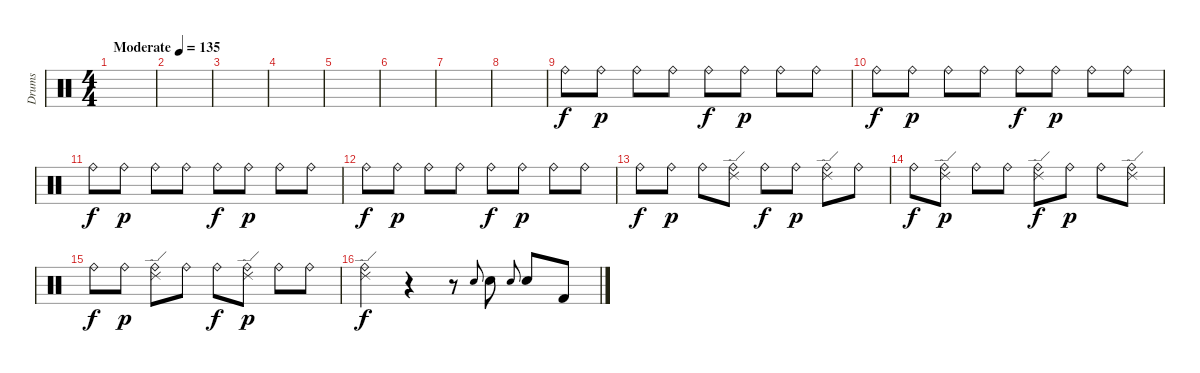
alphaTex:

\track ("Drums" "Drums") {instrument percussion}
\staff {score}
\articulation defaults
\ts (4 4)
\tempo (135 "Moderate")
\clef neutral
\ks c
|
|
|
|
|
|
|
|
"Ride (bell)".8 "Ride (bell)".8{dy p} "Ride (bell)".8 "Ride (bell)".8 "Ride (bell)".8{dy f} "Ride (bell)".8{dy p} "Ride (bell)".8 "Ride (bell)".8 |
"Ride (bell)".8{dy f} "Ride (bell)".8{dy p} "Ride (bell)".8 "Ride (bell)".8 "Ride (bell)".8{dy f} "Ride (bell)".8{dy p} "Ride (bell)".8 "Ride (bell)".8 |
"Ride (bell)".8{dy f} "Ride (bell)".8{dy p} "Ride (bell)".8 "Ride (bell)".8 "Ride (bell)".8{dy f} "Ride (bell)".8{dy p} "Ride (bell)".8 "Ride (bell)".8 |
"Ride (bell)".8{dy f} "Ride (bell)".8{dy p} "Ride (bell)".8 "Ride (bell)".8 "Ride (bell)".8{dy f} "Ride (bell)".8{dy p} "Ride (bell)".8 "Ride (bell)".8 |
"Ride (bell)".8{dy f} "Ride (bell)".8{dy p} "Ride (bell)".8 ("Ride (edge) 2" "Ride (bell)").8 "Ride (bell)".8{dy f} "Ride (bell)".8{dy p} ("Ride (edge) 2" "Ride (bell)").8 "Ride (bell)".8 |
"Ride (bell)".8{dy f} ("Ride (edge) 2" "Ride (bell)").8{dy p} "Ride (bell)".8 "Ride (bell)".8 ("Ride (edge) 2" "Ride (bell)").8{dy f} "Ride (bell)".8{dy p} "Ride (bell)".8 ("Ride (edge) 2" "Ride (bell)").8 |
"Ride (bell)".8{dy f} "Ride (bell)".8{dy p} ("Ride (edge) 2" "Ride (bell)").8 "Ride (bell)".8 "Ride (bell)".8{dy f} ("Ride (edge) 2" "Ride (bell)").8{dy p} "Ride (bell)".8 "Ride (bell)".8 |
("Ride (edge) 2" "Ride (bell)").4{dy f} r.4 r.8 "Electric Snare (hit)".8{gr onbeat} "Electric Snare (hit)".8 "Electric Snare (hit)".8{gr onbeat} "Electric Snare (hit)".8 "Kick (hit) 2".8
